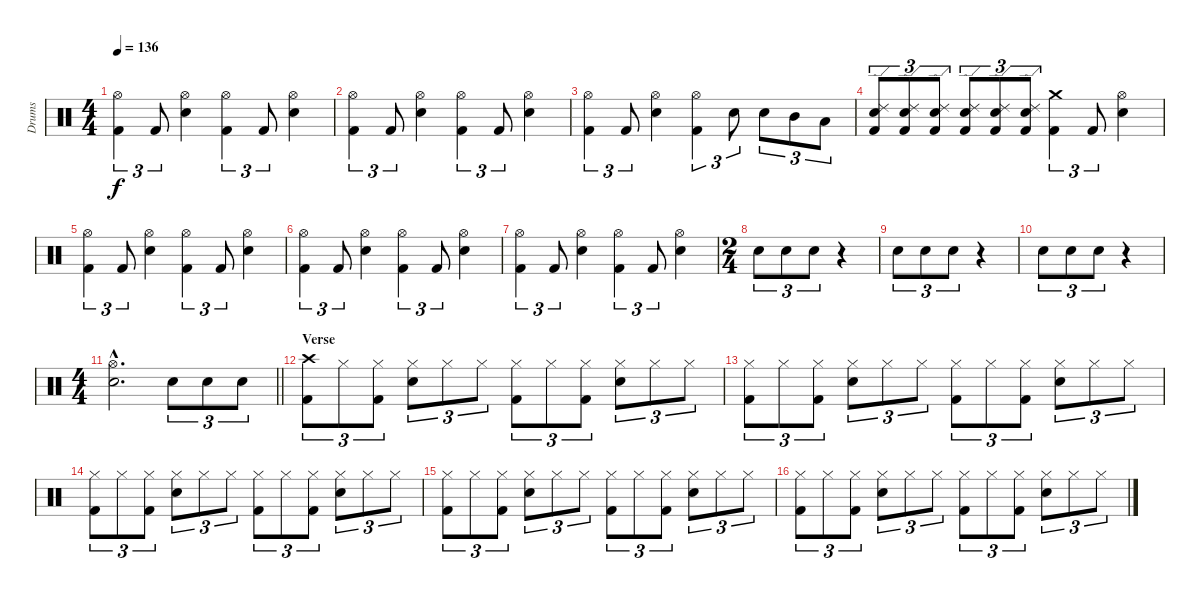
\track ("Drums" "Drums") {instrument percussion}
\staff {score}
\articulation defaults
\ts (4 4)
\tempo 136
\clef neutral
\ks c
("Hi-Hat (open)" "Kick (hit) 2").4{tu (3 2) dy f} "Kick (hit) 2".8{tu (3 2)} ("Hi-Hat (open)" "Snare (hit) 2").4 ("Hi-Hat (open)" "Kick (hit) 2").4{tu (3 2)} "Kick (hit) 2".8{tu (3 2)} ("Hi-Hat (open)" "Snare (hit) 2").4 |
("Hi-Hat (open)" "Kick (hit) 2").4{tu (3 2)} "Kick (hit) 2".8{tu (3 2)} ("Hi-Hat (open)" "Snare (hit) 2").4 ("Hi-Hat (open)" "Kick (hit) 2").4{tu (3 2)} "Kick (hit) 2".8{tu (3 2)} ("Hi-Hat (open)" "Snare (hit) 2").4 |
("Hi-Hat (open)" "Kick (hit) 2").4{tu (3 2)} "Kick (hit) 2".8{tu (3 2)} ("Hi-Hat (open)" "Snare (hit) 2").4 ("Hi-Hat (open)" "Kick (hit) 2").4{tu (3 2)} "Snare (hit) 2".8{tu (3 2)} "Snare (hit) 2".8{tu (3 2)} "Mid Tom (hit)".8{tu (3 2)} "Low Tom (hit)".8{tu (3 2)} |
("Ride (edge) 2" "Snare (hit) 2" "Kick (hit) 2").8{tu (3 2)} ("Ride (edge) 2" "Snare (hit) 2" "Kick (hit) 2").8{tu (3 2)} ("Ride (edge) 2" "Snare (hit) 2" "Kick (hit) 2").8{tu (3 2)} ("Ride (edge) 2" "Snare (hit) 2" "Kick (hit) 2").8{tu (3 2)} ("Ride (edge) 2" "Snare (hit) 2" "Kick (hit) 2").8{tu (3 2)} ("Ride (edge) 2" "Snare (hit) 2" "Kick (hit) 2").8{tu (3 2)} ("Crash medium (hit)" "Kick (hit) 2").4{tu (3 2)} "Kick (hit) 2".8{tu (3 2)} ("Hi-Hat (open)" "Snare (hit) 2").4 |
("Hi-Hat (open)" "Kick (hit) 2").4{tu (3 2)} "Kick (hit) 2".8{tu (3 2)} ("Hi-Hat (open)" "Snare (hit) 2").4 ("Hi-Hat (open)" "Kick (hit) 2").4{tu (3 2)} "Kick (hit) 2".8{tu (3 2)} ("Hi-Hat (open)" "Snare (hit) 2").4 |
("Hi-Hat (open)" "Kick (hit) 2").4{tu (3 2)} "Kick (hit) 2".8{tu (3 2)} ("Hi-Hat (open)" "Snare (hit) 2").4 ("Hi-Hat (open)" "Kick (hit) 2").4{tu (3 2)} "Kick (hit) 2".8{tu (3 2)} ("Hi-Hat (open)" "Snare (hit) 2").4 |
("Hi-Hat (open)" "Kick (hit) 2").4{tu (3 2)} "Kick (hit) 2".8{tu (3 2)} ("Hi-Hat (open)" "Snare (hit) 2").4 ("Hi-Hat (open)" "Kick (hit) 2").4{tu (3 2)} "Kick (hit) 2".8{tu (3 2)} ("Hi-Hat (open)" "Snare (hit) 2").4 |
\ts (2 4)
"Snare (hit) 2".8{tu (3 2)} "Snare (hit) 2".8{tu (3 2)} "Snare (hit) 2".8{tu (3 2)} r.4 |
"Snare (hit) 2".8{tu (3 2)} "Snare (hit) 2".8{tu (3 2)} "Snare (hit) 2".8{tu (3 2)} r.4 |
"Snare (hit) 2".8{tu (3 2)} "Snare (hit) 2".8{tu (3 2)} "Snare (hit) 2".8{tu (3 2)} r.4 |
\ts (4 4)
\barLineRight lightlight
("Hi-Hat (open)"{hac} "Snare (hit) 2"{hac}).2{d} "Snare (hit) 2".8{tu (3 2)} "Snare (hit) 2".8{tu (3 2)} "Snare (hit) 2".8{tu (3 2)} |
\section ("" "Verse")
("Crash high (hit)" "Kick (hit) 2").8{tu (3 2)} "Hi-Hat (closed)".8{tu (3 2)} ("Hi-Hat (closed)" "Kick (hit) 2").8{tu (3 2)} ("Hi-Hat (closed)" "Snare (hit) 2").8{tu (3 2)} "Hi-Hat (closed)".8{tu (3 2)} "Hi-Hat (closed)".8{tu (3 2)} ("Hi-Hat (closed)" "Kick (hit) 2").8{tu (3 2)} "Hi-Hat (closed)".8{tu (3 2)} ("Hi-Hat (closed)" "Kick (hit) 2").8{tu (3 2)} ("Hi-Hat (closed)" "Snare (hit) 2").8{tu (3 2)} "Hi-Hat (closed)".8{tu (3 2)} "Hi-Hat (closed)".8{tu (3 2)} |
("Hi-Hat (closed)" "Kick (hit) 2").8{tu (3 2)} "Hi-Hat (closed)".8{tu (3 2)} ("Hi-Hat (closed)" "Kick (hit) 2").8{tu (3 2)} ("Hi-Hat (closed)" "Snare (hit) 2").8{tu (3 2)} "Hi-Hat (closed)".8{tu (3 2)} "Hi-Hat (closed)".8{tu (3 2)} ("Hi-Hat (closed)" "Kick (hit) 2").8{tu (3 2)} "Hi-Hat (closed)".8{tu (3 2)} ("Hi-Hat (closed)" "Kick (hit) 2").8{tu (3 2)} ("Hi-Hat (closed)" "Snare (hit) 2").8{tu (3 2)} "Hi-Hat (closed)".8{tu (3 2)} "Hi-Hat (closed)".8{tu (3 2)} |
("Hi-Hat (closed)" "Kick (hit) 2").8{tu (3 2)} "Hi-Hat (closed)".8{tu (3 2)} ("Hi-Hat (closed)" "Kick (hit) 2").8{tu (3 2)} ("Hi-Hat (closed)" "Snare (hit) 2").8{tu (3 2)} "Hi-Hat (closed)".8{tu (3 2)} "Hi-Hat (closed)".8{tu (3 2)} ("Hi-Hat (closed)" "Kick (hit) 2").8{tu (3 2)} "Hi-Hat (closed)".8{tu (3 2)} ("Hi-Hat (closed)" "Kick (hit) 2").8{tu (3 2)} ("Hi-Hat (closed)" "Snare (hit) 2").8{tu (3 2)} "Hi-Hat (closed)".8{tu (3 2)} "Hi-Hat (closed)".8{tu (3 2)} |
("Hi-Hat (closed)" "Kick (hit) 2").8{tu (3 2)} "Hi-Hat (closed)".8{tu (3 2)} ("Hi-Hat (closed)" "Kick (hit) 2").8{tu (3 2)} ("Hi-Hat (closed)" "Snare (hit) 2").8{tu (3 2)} "Hi-Hat (closed)".8{tu (3 2)} "Hi-Hat (closed)".8{tu (3 2)} ("Hi-Hat (closed)" "Kick (hit) 2").8{tu (3 2)} "Hi-Hat (closed)".8{tu (3 2)} ("Hi-Hat (closed)" "Kick (hit) 2").8{tu (3 2)} ("Hi-Hat (closed)" "Snare (hit) 2").8{tu (3 2)} "Hi-Hat (closed)".8{tu (3 2)} "Hi-Hat (closed)".8{tu (3 2)} |
("Hi-Hat (closed)" "Kick (hit) 2").8{tu (3 2)} "Hi-Hat (closed)".8{tu (3 2)} ("Hi-Hat (closed)" "Kick (hit) 2").8{tu (3 2)} ("Hi-Hat (closed)" "Snare (hit) 2").8{tu (3 2)} "Hi-Hat (closed)".8{tu (3 2)} "Hi-Hat (closed)".8{tu (3 2)} ("Hi-Hat (closed)" "Kick (hit) 2").8{tu (3 2)} "Hi-Hat (closed)".8{tu (3 2)} ("Hi-Hat (closed)" "Kick (hit) 2").8{tu (3 2)} ("Hi-Hat (closed)" "Snare (hit) 2").8{tu (3 2)} "Hi-Hat (closed)".8{tu (3 2)} "Hi-Hat (closed)".8{tu (3 2)}
